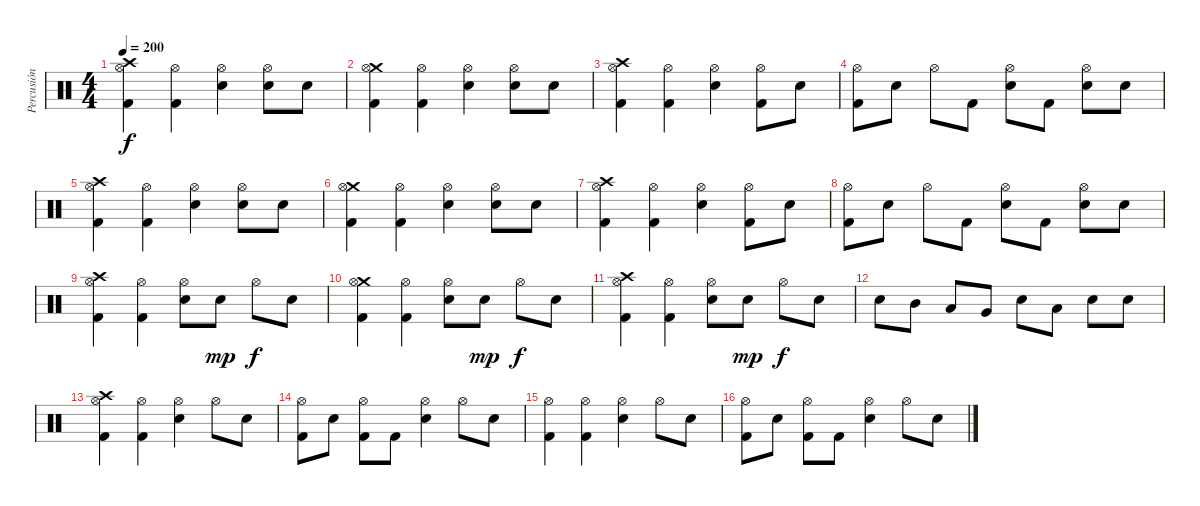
\track ("Percusión" "Percusión") {instrument percussion}
\staff {score}
\articulation defaults
\ts (4 4)
\tempo 200
\clef neutral
\ks c
("Crash high (hit)" "Hi-Hat (open)" "Kick (hit) 2").4{dy f} ("Hi-Hat (open)" "Kick (hit) 2").4 ("Hi-Hat (open)" "Electric Snare (hit)").4 ("Hi-Hat (open)" "Electric Snare (hit)").8 "Electric Snare (hit)".8 |
("Crash medium (hit)" "Hi-Hat (open)" "Kick (hit) 2").4 ("Hi-Hat (open)" "Kick (hit) 2").4 ("Hi-Hat (open)" "Electric Snare (hit)").4 ("Hi-Hat (open)" "Electric Snare (hit)").8 "Electric Snare (hit)".8 |
("Crash high (hit)" "Hi-Hat (open)" "Kick (hit) 2").4 ("Hi-Hat (open)" "Kick (hit) 2").4 ("Hi-Hat (open)" "Electric Snare (hit)").4 ("Hi-Hat (open)" "Kick (hit) 2").8 "Electric Snare (hit)".8 |
("Hi-Hat (open)" "Kick (hit) 2").8 "Electric Snare (hit)".8 "Hi-Hat (open)".8 "Kick (hit) 2".8 ("Hi-Hat (open)" "Electric Snare (hit)").8 "Kick (hit) 2".8 ("Hi-Hat (open)" "Electric Snare (hit)").8 "Electric Snare (hit)".8 |
("Crash high (hit)" "Hi-Hat (open)" "Kick (hit) 2").4 ("Hi-Hat (open)" "Kick (hit) 2").4 ("Hi-Hat (open)" "Electric Snare (hit)").4 ("Hi-Hat (open)" "Electric Snare (hit)").8 "Electric Snare (hit)".8 |
("Crash medium (hit)" "Hi-Hat (open)" "Kick (hit) 2").4 ("Hi-Hat (open)" "Kick (hit) 2").4 ("Hi-Hat (open)" "Electric Snare (hit)").4 ("Hi-Hat (open)" "Electric Snare (hit)").8 "Electric Snare (hit)".8 |
("Crash high (hit)" "Hi-Hat (open)" "Kick (hit) 2").4 ("Hi-Hat (open)" "Kick (hit) 2").4 ("Hi-Hat (open)" "Electric Snare (hit)").4 ("Hi-Hat (open)" "Kick (hit) 2").8 "Electric Snare (hit)".8 |
("Hi-Hat (open)" "Kick (hit) 2").8 "Electric Snare (hit)".8 "Hi-Hat (open)".8 "Kick (hit) 2".8 ("Hi-Hat (open)" "Electric Snare (hit)").8 "Kick (hit) 2".8 ("Hi-Hat (open)" "Electric Snare (hit)").8 "Electric Snare (hit)".8 |
("Crash high (hit)" "Hi-Hat (open)" "Kick (hit) 2").4 ("Hi-Hat (open)" "Kick (hit) 2").4 ("Hi-Hat (open)" "Electric Snare (hit)").8 "Electric Snare (hit)".8{dy mp} "Hi-Hat (open)".8{dy f} "Electric Snare (hit)".8 |
("Crash medium (hit)" "Hi-Hat (open)" "Kick (hit) 2").4 ("Hi-Hat (open)" "Kick (hit) 2").4 ("Hi-Hat (open)" "Electric Snare (hit)").8 "Electric Snare (hit)".8{dy mp} "Hi-Hat (open)".8{dy f} "Electric Snare (hit)".8 |
("Crash high (hit)" "Hi-Hat (open)" "Kick (hit) 2").4 ("Hi-Hat (open)" "Kick (hit) 2").4 ("Hi-Hat (open)" "Electric Snare (hit)").8 "Electric Snare (hit)".8{dy mp} "Hi-Hat (open)".8{dy f} "Electric Snare (hit)".8 |
"Electric Snare (hit)".8 "Mid Tom (hit)".8 "Low Tom (hit)".8 "Very Low Tom (hit)".8 "Electric Snare (hit)".8 "Low Tom (hit)".8 "Electric Snare (hit)".8 "Electric Snare (hit)".8 |
("Crash high (hit)" "Hi-Hat (open)" "Kick (hit) 2").4 ("Hi-Hat (open)" "Kick (hit) 2").4 ("Hi-Hat (open)" "Electric Snare (hit)").4 "Hi-Hat (open)".8 "Electric Snare (hit)".8 |
("Hi-Hat (open)" "Kick (hit) 2").8 "Electric Snare (hit)".8 ("Hi-Hat (open)" "Kick (hit) 2").8 "Kick (hit) 2".8 ("Hi-Hat (open)" "Electric Snare (hit)").4 "Hi-Hat (open)".8 "Electric Snare (hit)".8 |
("Hi-Hat (open)" "Kick (hit) 2").4 ("Hi-Hat (open)" "Kick (hit) 2").4 ("Hi-Hat (open)" "Electric Snare (hit)").4 "Hi-Hat (open)".8 "Electric Snare (hit)".8 |
("Hi-Hat (open)" "Kick (hit) 2").8 "Electric Snare (hit)".8 ("Hi-Hat (open)" "Kick (hit) 2").8 "Kick (hit) 2".8 ("Hi-Hat (open)" "Electric Snare (hit)").4 "Hi-Hat (open)".8 "Electric Snare (hit)".8
